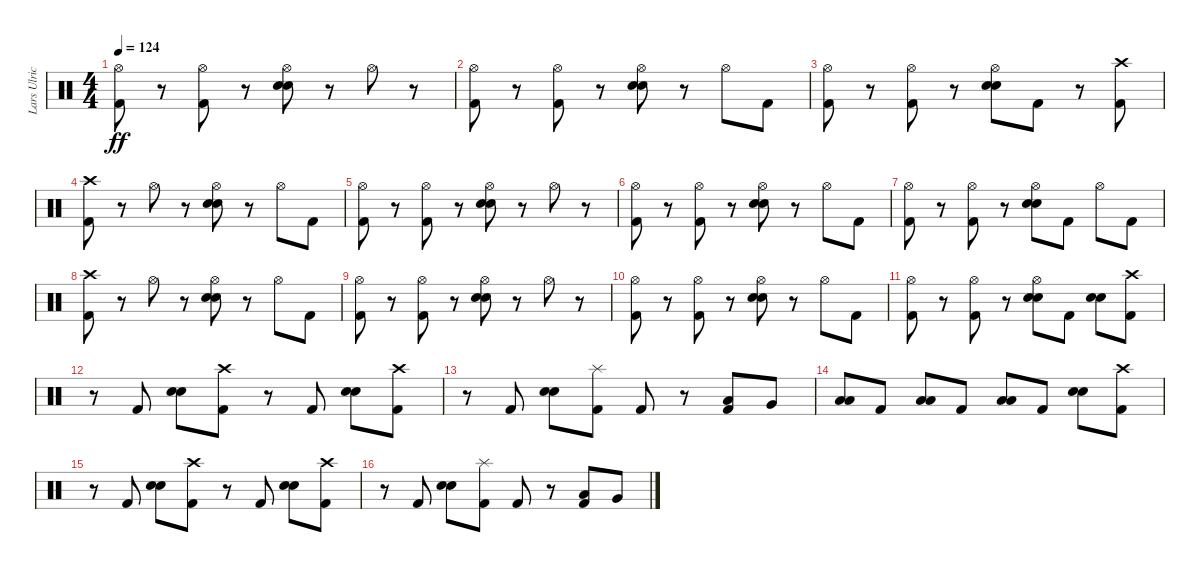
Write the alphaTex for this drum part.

\track ("Lars Ulrich" "Lars Ulric") {instrument percussion}
\staff {score}
\articulation defaults
\ts (4 4)
\tempo 124
\clef neutral
\ks c
("Hi-Hat (open)" "Kick (hit) 2").8{dy ff} r.8 ("Hi-Hat (open)" "Kick (hit) 2").8 r.8 ("Hi-Hat (open)" "Electric Snare (hit)" "Electric Snare (hit)").8 r.8 "Hi-Hat (open)".8 r.8 |
("Hi-Hat (open)" "Kick (hit) 2").8 r.8 ("Hi-Hat (open)" "Kick (hit) 2").8 r.8 ("Hi-Hat (open)" "Electric Snare (hit)" "Electric Snare (hit)").8 r.8 "Hi-Hat (open)".8 "Kick (hit) 2".8 |
("Hi-Hat (open)" "Kick (hit) 2").8 r.8 ("Hi-Hat (open)" "Kick (hit) 2").8 r.8 ("Hi-Hat (open)" "Electric Snare (hit)" "Electric Snare (hit)").8 "Kick (hit) 2".8 r.8 ("Crash high (hit)" "Kick (hit) 2").8 |
("Crash high (hit)" "Kick (hit) 2").8 r.8 "Hi-Hat (open)".8 r.8 ("Hi-Hat (open)" "Electric Snare (hit)" "Electric Snare (hit)").8 r.8 "Hi-Hat (open)".8 "Kick (hit) 2".8 |
("Hi-Hat (open)" "Kick (hit) 2").8 r.8 ("Hi-Hat (open)" "Kick (hit) 2").8 r.8 ("Hi-Hat (open)" "Electric Snare (hit)" "Electric Snare (hit)").8 r.8 "Hi-Hat (open)".8 r.8 |
("Hi-Hat (open)" "Kick (hit) 2").8 r.8 ("Hi-Hat (open)" "Kick (hit) 2").8 r.8 ("Hi-Hat (open)" "Electric Snare (hit)" "Electric Snare (hit)").8 r.8 "Hi-Hat (open)".8 "Kick (hit) 2".8 |
("Hi-Hat (open)" "Kick (hit) 2").8 r.8 ("Hi-Hat (open)" "Kick (hit) 2").8 r.8 ("Hi-Hat (open)" "Electric Snare (hit)" "Electric Snare (hit)").8 "Kick (hit) 2".8 "Hi-Hat (open)".8 "Kick (hit) 2".8 |
("Crash high (hit)" "Kick (hit) 2").8 r.8 "Hi-Hat (open)".8 r.8 ("Hi-Hat (open)" "Electric Snare (hit)" "Electric Snare (hit)").8 r.8 "Hi-Hat (open)".8 "Kick (hit) 2".8 |
("Hi-Hat (open)" "Kick (hit) 2").8 r.8 ("Hi-Hat (open)" "Kick (hit) 2").8 r.8 ("Hi-Hat (open)" "Electric Snare (hit)" "Electric Snare (hit)").8 r.8 "Hi-Hat (open)".8 r.8 |
("Hi-Hat (open)" "Kick (hit) 2").8 r.8 ("Hi-Hat (open)" "Kick (hit) 2").8 r.8 ("Hi-Hat (open)" "Electric Snare (hit)" "Electric Snare (hit)").8 r.8 "Hi-Hat (open)".8 "Kick (hit) 2".8 |
("Hi-Hat (open)" "Kick (hit) 2").8 r.8 ("Hi-Hat (open)" "Kick (hit) 2").8 r.8 ("Hi-Hat (open)" "Electric Snare (hit)" "Electric Snare (hit)").8 "Kick (hit) 2".8 ("Electric Snare (hit)" "Electric Snare (hit)").8{bd 240} ("Crash high (hit)" "Kick (hit) 2").8 |
r.8 "Kick (hit) 2".8 ("Electric Snare (hit)" "Electric Snare (hit)").8{bd 240} ("Crash high (hit)" "Kick (hit) 2").8 r.8 "Kick (hit) 2".8 ("Electric Snare (hit)" "Electric Snare (hit)").8{bd 240} ("Crash high (hit)" "Kick (hit) 2").8 |
r.8 "Kick (hit) 2".8 ("Electric Snare (hit)" "Electric Snare (hit)").8{bd 240} ("Splash (hit)" "Kick (hit) 2").8 "Kick (hit) 2".8 r.8 ("Low Floor Tom (hit)" "Kick (hit) 2").8 "Very Low Tom (hit)".8 |
("Low Tom (hit)" "Low Tom (hit)").8 "Kick (hit) 2".8 ("Low Tom (hit)" "Low Tom (hit)").8 "Kick (hit) 2".8 ("Low Tom (hit)" "Low Tom (hit)").8 "Kick (hit) 2".8 ("Electric Snare (hit)" "Electric Snare (hit)").8{bd 240} ("Crash high (hit)" "Kick (hit) 2").8 |
r.8 "Kick (hit) 2".8 ("Electric Snare (hit)" "Electric Snare (hit)").8{bd 240} ("Crash high (hit)" "Kick (hit) 2").8 r.8 "Kick (hit) 2".8 ("Electric Snare (hit)" "Electric Snare (hit)").8{bd 240} ("Crash high (hit)" "Kick (hit) 2").8 |
r.8 "Kick (hit) 2".8 ("Electric Snare (hit)" "Electric Snare (hit)").8{bd 240} ("Splash (hit)" "Kick (hit) 2").8 "Kick (hit) 2".8 r.8 ("Low Floor Tom (hit)" "Kick (hit) 2").8 "Very Low Tom (hit)".8
